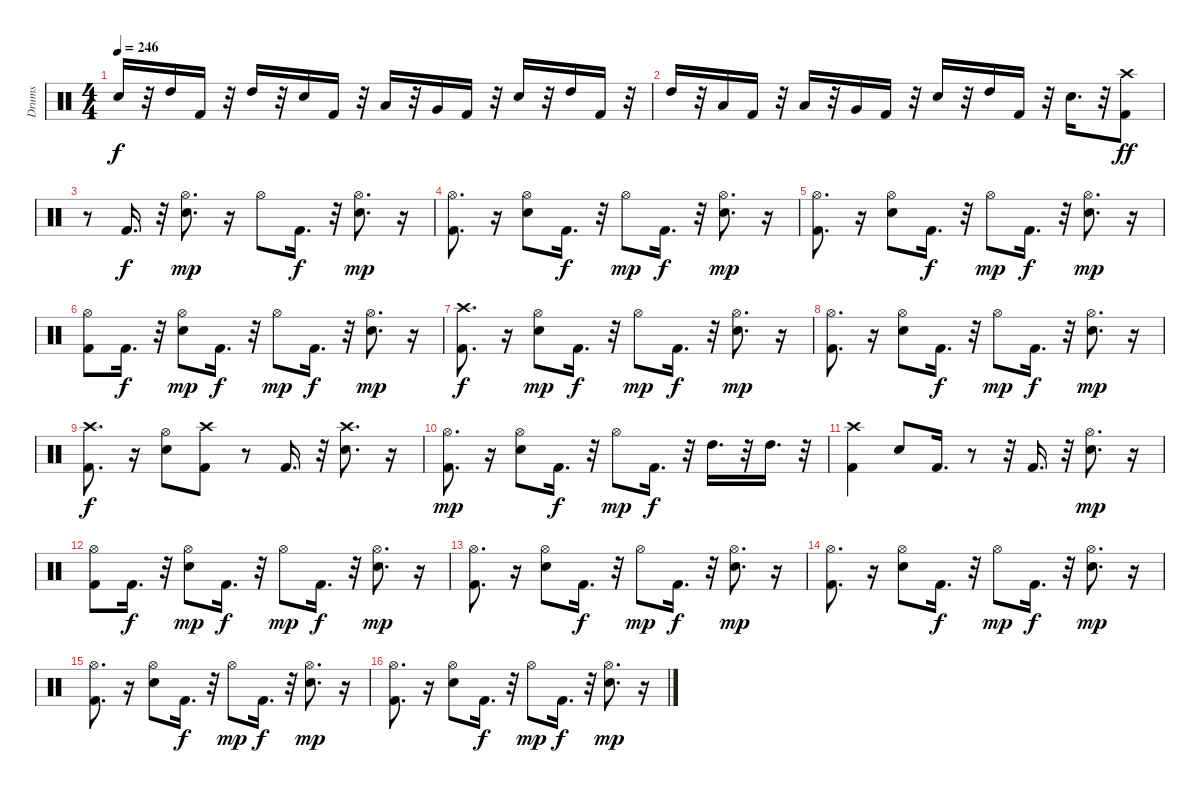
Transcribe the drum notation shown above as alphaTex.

\track ("Drums" "Drums") {instrument percussion}
\staff {score}
\articulation defaults
\ts (4 4)
\tempo 246
\clef neutral
\ks c "Electric Snare (hit)".16{dy f}
r.32 "High Tom (hit)".16 "Kick (hit) 2".16 r.32 "High Tom (hit)".16 r.32 "Electric Snare (hit)".16 "Kick (hit) 2".16 r.32 "Low Tom (hit)".16 r.32 "Very Low Tom (hit)".16 "Kick (hit) 2".16 r.32 "Electric Snare (hit)".16 r.32 "High Tom (hit)".16 "Kick (hit) 2".16 r.32 |
"High Tom (hit)".16 r.32 "Low Tom (hit)".16 "Kick (hit) 2".16 r.32 "Low Tom (hit)".16 r.32 "Very Low Tom (hit)".16 "Kick (hit) 2".16 r.32 "Electric Snare (hit)".16 r.32 "High Tom (hit)".16 "Kick (hit) 2".16 r.32 "Electric Snare (hit)".16{d} r.32 ("Kick (hit) 2" "Crash high (hit)").8{dy ff} |
r.8 "Kick (hit) 2".16{d dy f} r.32 ("Electric Snare (hit)" "Hi-Hat (open)").8{d dy mp} r.16 "Hi-Hat (open)".8 "Kick (hit) 2".16{d dy f} r.32 ("Electric Snare (hit)" "Hi-Hat (open)").8{d dy mp} r.16 |
("Kick (hit) 2" "Hi-Hat (open)").8{d} r.16 ("Electric Snare (hit)" "Hi-Hat (open)").8 "Kick (hit) 2".16{d dy f} r.32 "Hi-Hat (open)".8{dy mp} "Kick (hit) 2".16{d dy f} r.32 ("Electric Snare (hit)" "Hi-Hat (open)").8{d dy mp} r.16 |
("Kick (hit) 2" "Hi-Hat (open)").8{d} r.16 ("Electric Snare (hit)" "Hi-Hat (open)").8 "Kick (hit) 2".16{d dy f} r.32 "Hi-Hat (open)".8{dy mp} "Kick (hit) 2".16{d dy f} r.32 ("Electric Snare (hit)" "Hi-Hat (open)").8{d dy mp} r.16 |
("Kick (hit) 2" "Hi-Hat (open)").8 "Kick (hit) 2".16{d dy f} r.32 ("Electric Snare (hit)" "Hi-Hat (open)").8{dy mp} "Kick (hit) 2".16{d dy f} r.32 "Hi-Hat (open)".8{dy mp} "Kick (hit) 2".16{d dy f} r.32 ("Electric Snare (hit)" "Hi-Hat (open)").8{d dy mp} r.16 |
("Crash high (hit)" "Kick (hit) 2").8{d dy f} r.16 ("Electric Snare (hit)" "Hi-Hat (open)").8{dy mp} "Kick (hit) 2".16{d dy f} r.32 "Hi-Hat (open)".8{dy mp} "Kick (hit) 2".16{d dy f} r.32 ("Electric Snare (hit)" "Hi-Hat (open)").8{d dy mp} r.16 |
("Kick (hit) 2" "Hi-Hat (open)").8{d} r.16 ("Electric Snare (hit)" "Hi-Hat (open)").8 "Kick (hit) 2".16{d dy f} r.32 "Hi-Hat (open)".8{dy mp} "Kick (hit) 2".16{d dy f} r.32 ("Electric Snare (hit)" "Hi-Hat (open)").8{d dy mp} r.16 |
("Crash high (hit)" "Kick (hit) 2").8{d dy f} r.16 ("Electric Snare (hit)" "Hi-Hat (open)").8 ("Kick (hit) 2" "Crash high (hit)").8 r.8 "Kick (hit) 2".16{d} r.32 ("Crash high (hit)" "Electric Snare (hit)").8{d} r.16 |
("Kick (hit) 2" "Hi-Hat (open)").8{d dy mp} r.16 ("Electric Snare (hit)" "Hi-Hat (open)").8 "Kick (hit) 2".16{d dy f} r.32 "Hi-Hat (open)".8{dy mp} "Kick (hit) 2".16{d dy f} r.32 "High Tom (hit)".16{d} r.32 "High Tom (hit)".16{d} r.32 |
("Crash high (hit)" "Kick (hit) 2").4 "Electric Snare (hit)".8 "Kick (hit) 2".16{d} r.8 r.32 "Kick (hit) 2".16{d} r.32 ("Electric Snare (hit)" "Hi-Hat (open)").8{d dy mp} r.16 |
("Kick (hit) 2" "Hi-Hat (open)").8 "Kick (hit) 2".16{d dy f} r.32 ("Electric Snare (hit)" "Hi-Hat (open)").8{dy mp} "Kick (hit) 2".16{d dy f} r.32 "Hi-Hat (open)".8{dy mp} "Kick (hit) 2".16{d dy f} r.32 ("Electric Snare (hit)" "Hi-Hat (open)").8{d dy mp} r.16 |
("Kick (hit) 2" "Hi-Hat (open)").8{d} r.16 ("Electric Snare (hit)" "Hi-Hat (open)").8 "Kick (hit) 2".16{d dy f} r.32 "Hi-Hat (open)".8{dy mp} "Kick (hit) 2".16{d dy f} r.32 ("Electric Snare (hit)" "Hi-Hat (open)").8{d dy mp} r.16 |
("Kick (hit) 2" "Hi-Hat (open)").8{d} r.16 ("Electric Snare (hit)" "Hi-Hat (open)").8 "Kick (hit) 2".16{d dy f} r.32 "Hi-Hat (open)".8{dy mp} "Kick (hit) 2".16{d dy f} r.32 ("Electric Snare (hit)" "Hi-Hat (open)").8{d dy mp} r.16 |
("Kick (hit) 2" "Hi-Hat (open)").8{d} r.16 ("Electric Snare (hit)" "Hi-Hat (open)").8 "Kick (hit) 2".16{d dy f} r.32 "Hi-Hat (open)".8{dy mp} "Kick (hit) 2".16{d dy f} r.32 ("Electric Snare (hit)" "Hi-Hat (open)").8{d dy mp} r.16 |
("Kick (hit) 2" "Hi-Hat (open)").8{d} r.16 ("Electric Snare (hit)" "Hi-Hat (open)").8 "Kick (hit) 2".16{d dy f} r.32 "Hi-Hat (open)".8{dy mp} "Kick (hit) 2".16{d dy f} r.32 ("Electric Snare (hit)" "Hi-Hat (open)").8{d dy mp} r.16
